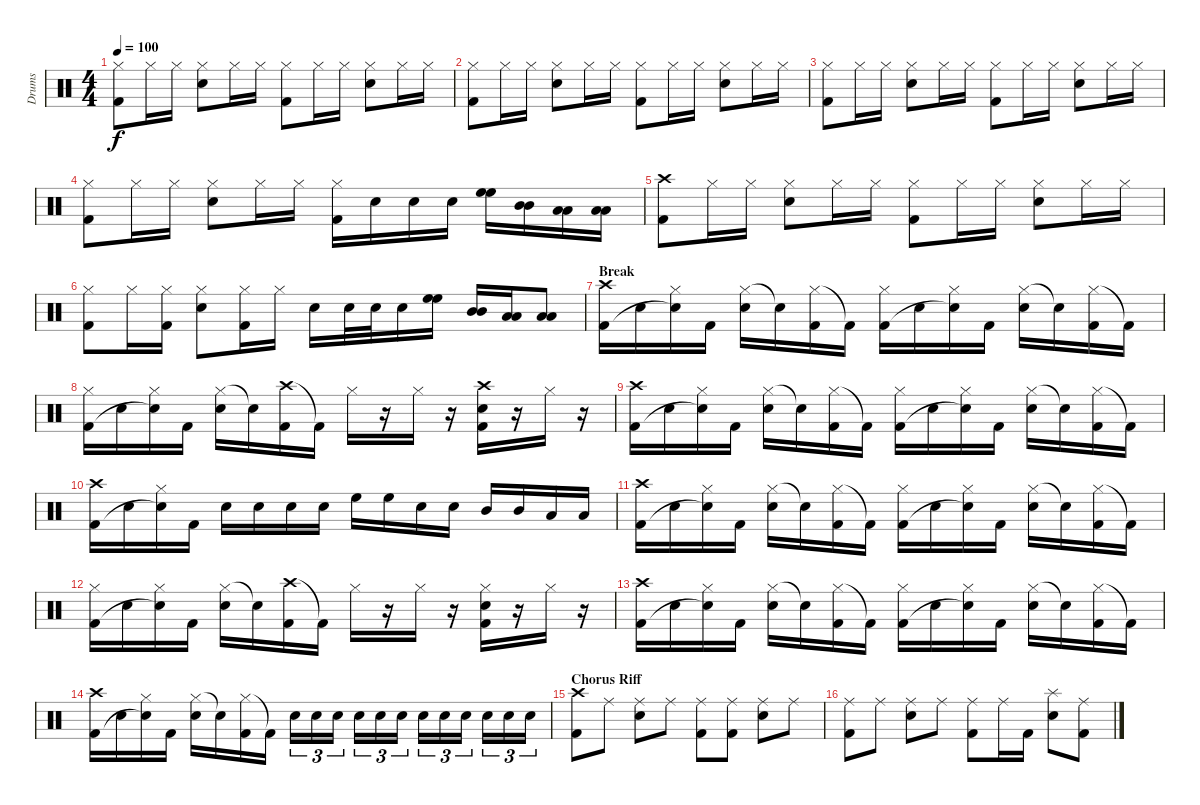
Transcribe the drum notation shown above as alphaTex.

\track ("Drums" "Drums") {instrument percussion}
\staff {score}
\articulation defaults
\ts (4 4)
\tempo 100
\clef neutral
\ks c
("Hi-Hat (closed)" "Kick (hit) 2").8{dy f} "Hi-Hat (closed)".16 "Hi-Hat (closed)".16 ("Hi-Hat (closed)" "Snare (hit) 2").8 "Hi-Hat (closed)".16 "Hi-Hat (closed)".16 ("Hi-Hat (closed)" "Kick (hit) 2").8 "Hi-Hat (closed)".16 "Hi-Hat (closed)".16 ("Hi-Hat (closed)" "Snare (hit) 2").8 "Hi-Hat (closed)".16 "Hi-Hat (closed)".16 |
("Hi-Hat (closed)" "Kick (hit) 2").8 "Hi-Hat (closed)".16 "Hi-Hat (closed)".16 ("Hi-Hat (closed)" "Snare (hit) 2").8 "Hi-Hat (closed)".16 "Hi-Hat (closed)".16 ("Hi-Hat (closed)" "Kick (hit) 2").8 "Hi-Hat (closed)".16 "Hi-Hat (closed)".16 ("Hi-Hat (closed)" "Snare (hit) 2").8 "Hi-Hat (closed)".16 "Hi-Hat (closed)".16 |
("Hi-Hat (closed)" "Kick (hit) 2").8 "Hi-Hat (closed)".16 "Hi-Hat (closed)".16 ("Hi-Hat (closed)" "Snare (hit) 2").8 "Hi-Hat (closed)".16 "Hi-Hat (closed)".16 ("Hi-Hat (closed)" "Kick (hit) 2").8 "Hi-Hat (closed)".16 "Hi-Hat (closed)".16 ("Hi-Hat (closed)" "Snare (hit) 2").8 "Hi-Hat (closed)".16 "Hi-Hat (closed)".16 |
("Hi-Hat (closed)" "Kick (hit) 2").8 "Hi-Hat (closed)".16 "Hi-Hat (closed)".16 ("Hi-Hat (closed)" "Snare (hit) 2").8 "Hi-Hat (closed)".16 "Hi-Hat (closed)".16 ("Hi-Hat (closed)" "Kick (hit) 2").16 "Snare (hit) 2".16 "Snare (hit) 2".16 "Snare (hit) 2".16 ("High Floor Tom (hit)" "High Floor Tom (hit)").16 ("Mid Tom (hit)" "Mid Tom (hit)").16 ("Low Tom (hit)" "Low Tom (hit)").16 ("Low Floor Tom (hit)" "Low Floor Tom (hit)").16 |
("Crash high (hit)" "Kick (hit) 2").8 "Hi-Hat (closed)".16 "Hi-Hat (closed)".16 ("Hi-Hat (closed)" "Snare (hit) 2").8 "Hi-Hat (closed)".16 "Hi-Hat (closed)".16 ("Hi-Hat (closed)" "Kick (hit) 2").8 "Hi-Hat (closed)".16 "Hi-Hat (closed)".16 ("Hi-Hat (closed)" "Snare (hit) 2").8 "Hi-Hat (closed)".16 "Hi-Hat (closed)".16 |
("Hi-Hat (closed)" "Kick (hit) 2").8 "Hi-Hat (closed)".16 ("Hi-Hat (closed)" "Kick (hit) 2").16 ("Hi-Hat (closed)" "Snare (hit) 2").8 ("Hi-Hat (closed)" "Kick (hit) 2").16 "Hi-Hat (closed)".16 "Snare (hit) 2".16 "Snare (hit) 2".32 "Snare (hit) 2".32 "Snare (hit) 2".16 ("High Floor Tom (hit)" "High Floor Tom (hit)").16 ("Mid Tom (hit)" "Mid Tom (hit)").16 ("Low Tom (hit)" "Low Tom (hit)").16 ("Low Floor Tom (hit)" "Low Floor Tom (hit)").8 |
\section ("" "Break")
("Crash high (hit)" "Kick (hit) 2").16 "Snare (hit) 2".16 ("Hi-Hat (closed)" "Snare (hit) 2"{t}).16 "Kick (hit) 2".16 ("Hi-Hat (closed)" "Snare (hit) 2").16 "Snare (hit) 2"{t}.16 ("Hi-Hat (closed)" "Kick (hit) 2").16 "Kick (hit) 2"{t}.16 ("Hi-Hat (closed)" "Kick (hit) 2").16 "Snare (hit) 2".16 ("Hi-Hat (closed)" "Snare (hit) 2"{t}).16 "Kick (hit) 2".16 ("Hi-Hat (closed)" "Snare (hit) 2").16 "Snare (hit) 2"{t}.16 ("Hi-Hat (closed)" "Kick (hit) 2").16 "Kick (hit) 2"{t}.16 |
("Hi-Hat (closed)" "Kick (hit) 2").16 "Snare (hit) 2".16 ("Hi-Hat (closed)" "Snare (hit) 2"{t}).16 "Kick (hit) 2".16 ("Hi-Hat (closed)" "Snare (hit) 2").16 "Snare (hit) 2"{t}.16 ("Crash high (hit)" "Kick (hit) 2").16 "Kick (hit) 2"{t}.16 "Hi-Hat (closed)".16 r.16 "Hi-Hat (closed)".16 r.16 ("Crash high (hit)" "Snare (hit) 2" "Kick (hit) 2").16 r.16 "Hi-Hat (closed)".16 r.16 |
("Crash high (hit)" "Kick (hit) 2").16 "Snare (hit) 2".16 ("Hi-Hat (closed)" "Snare (hit) 2"{t}).16 "Kick (hit) 2".16 ("Hi-Hat (closed)" "Snare (hit) 2").16 "Snare (hit) 2"{t}.16 ("Hi-Hat (closed)" "Kick (hit) 2").16 "Kick (hit) 2"{t}.16 ("Hi-Hat (closed)" "Kick (hit) 2").16 "Snare (hit) 2".16 ("Hi-Hat (closed)" "Snare (hit) 2"{t}).16 "Kick (hit) 2".16 ("Hi-Hat (closed)" "Snare (hit) 2").16 "Snare (hit) 2"{t}.16 ("Hi-Hat (closed)" "Kick (hit) 2").16 "Kick (hit) 2"{t}.16 |
("Crash high (hit)" "Kick (hit) 2").16 "Snare (hit) 2".16 ("Hi-Hat (closed)" "Snare (hit) 2"{t}).16 "Kick (hit) 2".16 "Snare (hit) 2".16 "Snare (hit) 2".16 "Snare (hit) 2".16 "Snare (hit) 2".16 "High Floor Tom (hit)".16 "High Floor Tom (hit)".16 "Snare (hit) 2".16 "Snare (hit) 2".16 "Mid Tom (hit)".16 "Mid Tom (hit)".16 "Low Tom (hit)".16 "Low Tom (hit)".16 |
("Crash high (hit)" "Kick (hit) 2").16 "Snare (hit) 2".16 ("Hi-Hat (closed)" "Snare (hit) 2"{t}).16 "Kick (hit) 2".16 ("Hi-Hat (closed)" "Snare (hit) 2").16 "Snare (hit) 2"{t}.16 ("Hi-Hat (closed)" "Kick (hit) 2").16 "Kick (hit) 2"{t}.16 ("Hi-Hat (closed)" "Kick (hit) 2").16 "Snare (hit) 2".16 ("Hi-Hat (closed)" "Snare (hit) 2"{t}).16 "Kick (hit) 2".16 ("Hi-Hat (closed)" "Snare (hit) 2").16 "Snare (hit) 2"{t}.16 ("Hi-Hat (closed)" "Kick (hit) 2").16 "Kick (hit) 2"{t}.16 |
("Hi-Hat (closed)" "Kick (hit) 2").16 "Snare (hit) 2".16 ("Hi-Hat (closed)" "Snare (hit) 2"{t}).16 "Kick (hit) 2".16 ("Hi-Hat (closed)" "Snare (hit) 2").16 "Snare (hit) 2"{t}.16 ("Crash high (hit)" "Kick (hit) 2").16 "Kick (hit) 2"{t}.16 "Hi-Hat (closed)".16 r.16 "Hi-Hat (closed)".16 r.16 ("Hi-Hat (closed)" "Snare (hit) 2" "Kick (hit) 2").16 r.16 "Hi-Hat (closed)".16 r.16 |
("Crash high (hit)" "Kick (hit) 2").16 "Snare (hit) 2".16 ("Hi-Hat (closed)" "Snare (hit) 2"{t}).16 "Kick (hit) 2".16 ("Hi-Hat (closed)" "Snare (hit) 2").16 "Snare (hit) 2"{t}.16 ("Hi-Hat (closed)" "Kick (hit) 2").16 "Kick (hit) 2"{t}.16 ("Hi-Hat (closed)" "Kick (hit) 2").16 "Snare (hit) 2".16 ("Hi-Hat (closed)" "Snare (hit) 2"{t}).16 "Kick (hit) 2".16 ("Hi-Hat (closed)" "Snare (hit) 2").16 "Snare (hit) 2"{t}.16 ("Hi-Hat (closed)" "Kick (hit) 2").16 "Kick (hit) 2"{t}.16 |
("Crash high (hit)" "Kick (hit) 2").16 "Snare (hit) 2".16 ("Hi-Hat (closed)" "Snare (hit) 2"{t}).16 "Kick (hit) 2".16 ("Hi-Hat (closed)" "Snare (hit) 2").16 "Snare (hit) 2"{t}.16 ("Hi-Hat (closed)" "Kick (hit) 2").16 "Kick (hit) 2"{t}.16 "Snare (hit) 2".16{tu (3 2)} "Snare (hit) 2".16{tu (3 2)} "Snare (hit) 2".16{tu (3 2)} "Snare (hit) 2".16{tu (3 2)} "Snare (hit) 2".16{tu (3 2)} "Snare (hit) 2".16{tu (3 2)} "Snare (hit) 2".16{tu (3 2)} "Snare (hit) 2".16{tu (3 2)} "Snare (hit) 2".16{tu (3 2)} "Snare (hit) 2".16{tu (3 2)} "Snare (hit) 2".16{tu (3 2)} "Snare (hit) 2".16{tu (3 2)} |
\section ("" "Chorus Riff")
("Crash high (hit)" "Kick (hit) 2").8 "Ride (middle)".8 ("Ride (middle)" "Snare (hit) 2").8 "Ride (middle)".8 ("Ride (middle)" "Kick (hit) 2").8 ("Ride (middle)" "Kick (hit) 2").8 ("Ride (middle)" "Snare (hit) 2").8 "Ride (middle)".8 |
("Ride (middle)" "Kick (hit) 2").8 "Ride (middle)".8 ("Ride (middle)" "Snare (hit) 2").8 "Ride (middle)".8 ("Ride (middle)" "Kick (hit) 2").8 "Ride (middle)".16 "Kick (hit) 2".16 ("Splash (hit)" "Snare (hit) 2").8 ("Ride (middle)" "Kick (hit) 2").8
